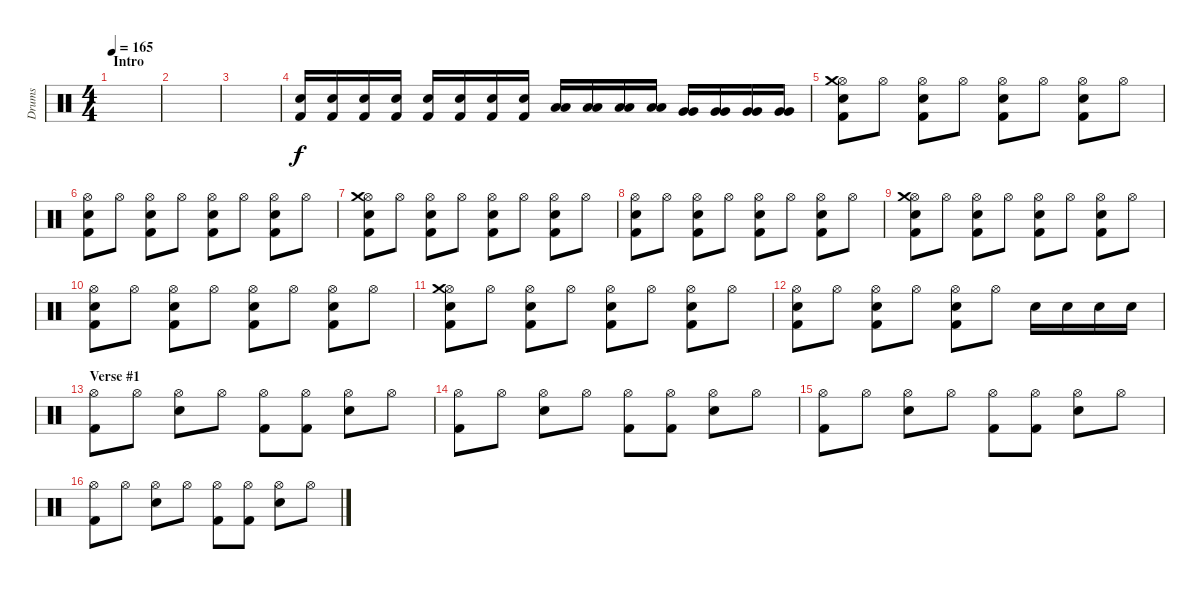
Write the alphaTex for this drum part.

\track ("Drums" "Drums") {instrument percussion}
\staff {score}
\articulation defaults
\ts (4 4)
\section ("" "Intro")
\tempo 165
\clef neutral
\ks c
|
|
|
("Electric Snare (hit)" "Kick (hit) 2").16 ("Electric Snare (hit)" "Kick (hit) 2").16 ("Electric Snare (hit)" "Kick (hit) 2").16 ("Electric Snare (hit)" "Kick (hit) 2").16 ("Electric Snare (hit)" "Kick (hit) 2").16 ("Electric Snare (hit)" "Kick (hit) 2").16 ("Electric Snare (hit)" "Kick (hit) 2").16 ("Electric Snare (hit)" "Kick (hit) 2").16 ("Low Tom (hit)" "Low Tom (hit)").16 ("Low Tom (hit)" "Low Tom (hit)").16 ("Low Tom (hit)" "Low Tom (hit)").16 ("Low Tom (hit)" "Low Tom (hit)").16 ("Very Low Tom (hit)" "Very Low Tom (hit)").16 ("Very Low Tom (hit)" "Very Low Tom (hit)").16 ("Very Low Tom (hit)" "Very Low Tom (hit)").16 ("Very Low Tom (hit)" "Very Low Tom (hit)").16 |
("Electric Snare (hit)" "Kick (hit) 2" "Hi-Hat (open)" "Crash medium (hit)").8 "Hi-Hat (open)".8 ("Electric Snare (hit)" "Kick (hit) 2" "Hi-Hat (open)").8 "Hi-Hat (open)".8 ("Electric Snare (hit)" "Kick (hit) 2" "Hi-Hat (open)").8 "Hi-Hat (open)".8 ("Electric Snare (hit)" "Kick (hit) 2" "Hi-Hat (open)").8 "Hi-Hat (open)".8 |
("Electric Snare (hit)" "Kick (hit) 2" "Hi-Hat (open)").8 "Hi-Hat (open)".8 ("Electric Snare (hit)" "Kick (hit) 2" "Hi-Hat (open)").8 "Hi-Hat (open)".8 ("Electric Snare (hit)" "Kick (hit) 2" "Hi-Hat (open)").8 "Hi-Hat (open)".8 ("Electric Snare (hit)" "Kick (hit) 2" "Hi-Hat (open)").8 "Hi-Hat (open)".8 |
("Electric Snare (hit)" "Kick (hit) 2" "Hi-Hat (open)" "Crash medium (hit)").8 "Hi-Hat (open)".8 ("Electric Snare (hit)" "Kick (hit) 2" "Hi-Hat (open)").8 "Hi-Hat (open)".8 ("Electric Snare (hit)" "Kick (hit) 2" "Hi-Hat (open)").8 "Hi-Hat (open)".8 ("Electric Snare (hit)" "Kick (hit) 2" "Hi-Hat (open)").8 "Hi-Hat (open)".8 |
("Electric Snare (hit)" "Kick (hit) 2" "Hi-Hat (open)").8 "Hi-Hat (open)".8 ("Electric Snare (hit)" "Kick (hit) 2" "Hi-Hat (open)").8 "Hi-Hat (open)".8 ("Electric Snare (hit)" "Kick (hit) 2" "Hi-Hat (open)").8 "Hi-Hat (open)".8 ("Electric Snare (hit)" "Kick (hit) 2" "Hi-Hat (open)").8 "Hi-Hat (open)".8 |
("Electric Snare (hit)" "Kick (hit) 2" "Hi-Hat (open)" "Crash medium (hit)").8 "Hi-Hat (open)".8 ("Electric Snare (hit)" "Kick (hit) 2" "Hi-Hat (open)").8 "Hi-Hat (open)".8 ("Electric Snare (hit)" "Kick (hit) 2" "Hi-Hat (open)").8 "Hi-Hat (open)".8 ("Electric Snare (hit)" "Kick (hit) 2" "Hi-Hat (open)").8 "Hi-Hat (open)".8 |
("Electric Snare (hit)" "Kick (hit) 2" "Hi-Hat (open)").8 "Hi-Hat (open)".8 ("Electric Snare (hit)" "Kick (hit) 2" "Hi-Hat (open)").8 "Hi-Hat (open)".8 ("Electric Snare (hit)" "Kick (hit) 2" "Hi-Hat (open)").8 "Hi-Hat (open)".8 ("Electric Snare (hit)" "Kick (hit) 2" "Hi-Hat (open)").8 "Hi-Hat (open)".8 |
("Electric Snare (hit)" "Kick (hit) 2" "Hi-Hat (open)" "Crash medium (hit)").8 "Hi-Hat (open)".8 ("Electric Snare (hit)" "Kick (hit) 2" "Hi-Hat (open)").8 "Hi-Hat (open)".8 ("Electric Snare (hit)" "Kick (hit) 2" "Hi-Hat (open)").8 "Hi-Hat (open)".8 ("Electric Snare (hit)" "Kick (hit) 2" "Hi-Hat (open)").8 "Hi-Hat (open)".8 |
("Electric Snare (hit)" "Kick (hit) 2" "Hi-Hat (open)").8 "Hi-Hat (open)".8 ("Electric Snare (hit)" "Kick (hit) 2" "Hi-Hat (open)").8 "Hi-Hat (open)".8 ("Electric Snare (hit)" "Kick (hit) 2" "Hi-Hat (open)").8 "Hi-Hat (open)".8 "Electric Snare (hit)".16 "Electric Snare (hit)".16 "Electric Snare (hit)".16 "Electric Snare (hit)".16 |
\section ("" "Verse #1")
("Kick (hit) 2" "Hi-Hat (open)").8 "Hi-Hat (open)".8 ("Electric Snare (hit)" "Hi-Hat (open)").8 "Hi-Hat (open)".8 ("Kick (hit) 2" "Hi-Hat (open)").8 ("Kick (hit) 2" "Hi-Hat (open)").8 ("Electric Snare (hit)" "Hi-Hat (open)").8 "Hi-Hat (open)".8 |
("Kick (hit) 2" "Hi-Hat (open)").8 "Hi-Hat (open)".8 ("Electric Snare (hit)" "Hi-Hat (open)").8 "Hi-Hat (open)".8 ("Kick (hit) 2" "Hi-Hat (open)").8 ("Kick (hit) 2" "Hi-Hat (open)").8 ("Electric Snare (hit)" "Hi-Hat (open)").8 "Hi-Hat (open)".8 |
("Kick (hit) 2" "Hi-Hat (open)").8 "Hi-Hat (open)".8 ("Electric Snare (hit)" "Hi-Hat (open)").8 "Hi-Hat (open)".8 ("Kick (hit) 2" "Hi-Hat (open)").8 ("Kick (hit) 2" "Hi-Hat (open)").8 ("Electric Snare (hit)" "Hi-Hat (open)").8 "Hi-Hat (open)".8 |
("Kick (hit) 2" "Hi-Hat (open)").8 "Hi-Hat (open)".8 ("Electric Snare (hit)" "Hi-Hat (open)").8 "Hi-Hat (open)".8 ("Kick (hit) 2" "Hi-Hat (open)").8 ("Kick (hit) 2" "Hi-Hat (open)").8 ("Electric Snare (hit)" "Hi-Hat (open)").8 "Hi-Hat (open)".8
